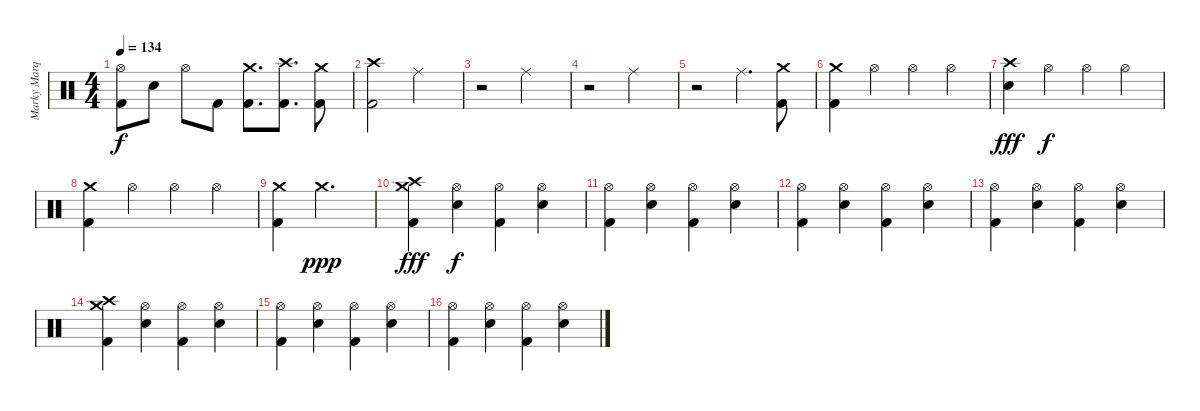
\track ("Marky Marquis" "Marky Marq") {instrument percussion}
\staff {score}
\articulation defaults
\ts (4 4)
\tempo 134
\clef neutral
\ks c
("Hi-Hat (open)" "Kick (hit) 2").8{dy f} "Electric Snare (hit)".8 "Hi-Hat (open)".8 "Kick (hit) 2".8 ("Crash medium (hit)" "Kick (hit) 2").8{d} ("Crash high (hit)" "Kick (hit) 2").8{d} ("Crash medium (hit)" "Kick (hit) 2").8 |
("Crash high (hit)" "Kick (hit) 2").2 "Ride (middle)".2 |
r.2 "Ride (middle)".2 |
r.2 "Ride (middle)".2 |
r.2 "Ride (middle)".4{d} ("Crash medium (hit)" "Kick (hit) 2").8 |
("Crash medium (hit)" "Kick (hit) 2").4 "Hi-Hat (open)".4 "Hi-Hat (open)".4 "Hi-Hat (open)".4 |
("Crash high (hit)" "Electric Snare (hit)").4{dy fff} "Hi-Hat (open)".4{dy f} "Hi-Hat (open)".4 "Hi-Hat (open)".4 |
("Crash medium (hit)" "Kick (hit) 2").4 "Hi-Hat (open)".4 "Hi-Hat (open)".4 "Hi-Hat (open)".4 |
("Crash medium (hit)" "Kick (hit) 2").4 "Crash medium (hit)".2{d dy ppp} |
("Crash high (hit)" "Crash medium (hit)" "Kick (hit) 2").4{dy fff} ("Hi-Hat (open)" "Electric Snare (hit)").4{dy f} ("Hi-Hat (open)" "Kick (hit) 2").4 ("Hi-Hat (open)" "Electric Snare (hit)").4 |
("Hi-Hat (open)" "Kick (hit) 2").4 ("Hi-Hat (open)" "Electric Snare (hit)").4 ("Hi-Hat (open)" "Kick (hit) 2").4 ("Hi-Hat (open)" "Electric Snare (hit)").4 |
("Hi-Hat (open)" "Kick (hit) 2").4 ("Hi-Hat (open)" "Electric Snare (hit)").4 ("Hi-Hat (open)" "Kick (hit) 2").4 ("Hi-Hat (open)" "Electric Snare (hit)").4 |
("Hi-Hat (open)" "Kick (hit) 2").4 ("Hi-Hat (open)" "Electric Snare (hit)").4 ("Hi-Hat (open)" "Kick (hit) 2").4 ("Hi-Hat (open)" "Electric Snare (hit)").4 |
("Crash high (hit)" "Crash medium (hit)" "Kick (hit) 2").4 ("Hi-Hat (open)" "Electric Snare (hit)").4 ("Hi-Hat (open)" "Kick (hit) 2").4 ("Hi-Hat (open)" "Electric Snare (hit)").4 |
("Hi-Hat (open)" "Kick (hit) 2").4 ("Hi-Hat (open)" "Electric Snare (hit)").4 ("Hi-Hat (open)" "Kick (hit) 2").4 ("Hi-Hat (open)" "Electric Snare (hit)").4 |
("Hi-Hat (open)" "Kick (hit) 2").4 ("Hi-Hat (open)" "Electric Snare (hit)").4 ("Hi-Hat (open)" "Kick (hit) 2").4 ("Hi-Hat (open)" "Electric Snare (hit)").4
